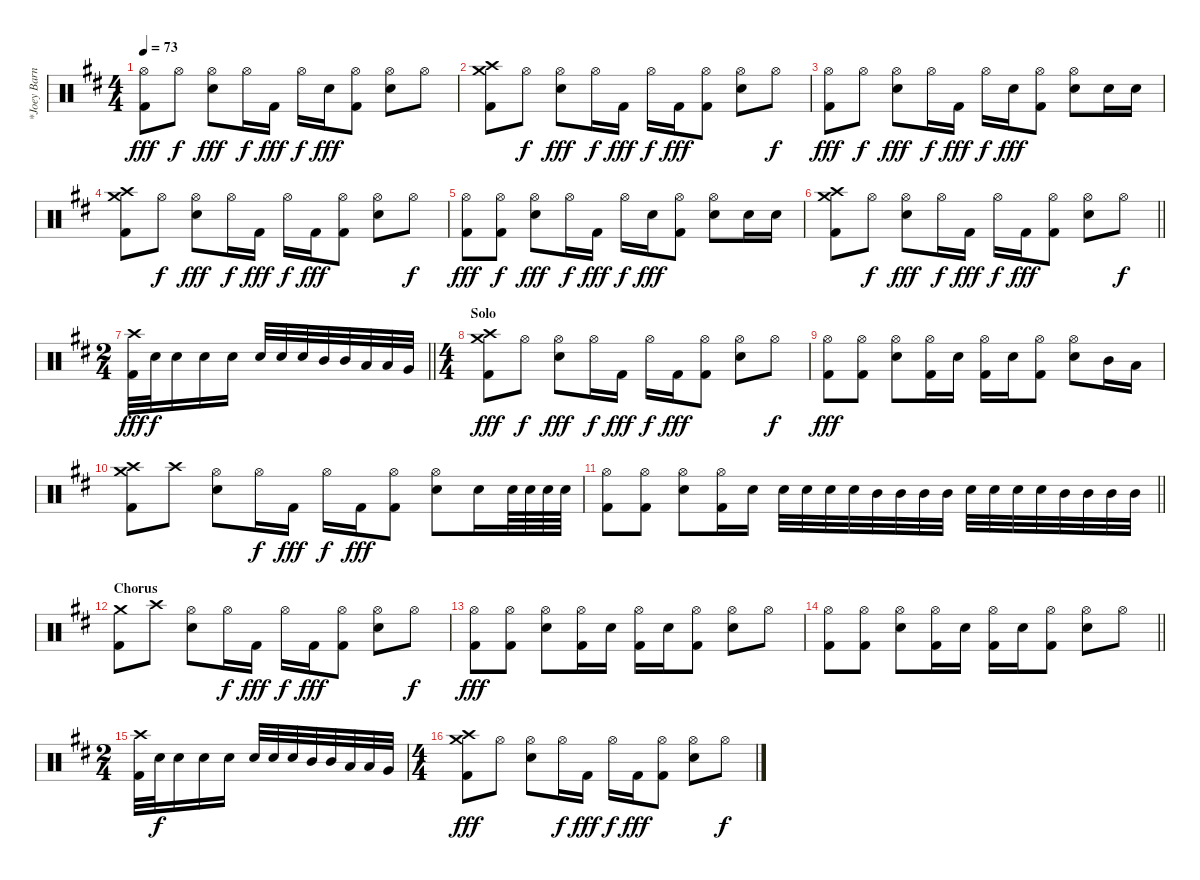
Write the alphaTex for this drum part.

\track ("*Joey Barnes (Drums)" "*Joey Barn") {instrument percussion}
\staff {score}
\articulation defaults
\ts (4 4)
\tempo 73
\clef neutral
\ks d
("Hi-Hat (open)" "Kick (hit) 2").8{dy fff} "Hi-Hat (open)".8{dy f} ("Hi-Hat (open)" "Snare (hit) 2").8{dy fff} "Hi-Hat (open)".16{dy f} "Kick (hit) 2".16{dy fff} "Hi-Hat (open)".16{dy f} "Snare (hit) 2".16{dy fff} ("Hi-Hat (open)" "Kick (hit) 2").8 ("Hi-Hat (open)" "Snare (hit) 2").8 "Hi-Hat (open)".8 |
("Crash high (hit)" "Crash medium (hit)" "Kick (hit) 2").8 "Hi-Hat (open)".8{dy f} ("Hi-Hat (open)" "Snare (hit) 2").8{dy fff} "Hi-Hat (open)".16{dy f} "Kick (hit) 2".16{dy fff} "Hi-Hat (open)".16{dy f} "Kick (hit) 2".16{dy fff} ("Hi-Hat (open)" "Kick (hit) 2").8 ("Hi-Hat (open)" "Snare (hit) 2").8 "Hi-Hat (open)".8{dy f} |
("Hi-Hat (open)" "Kick (hit) 2").8{dy fff} "Hi-Hat (open)".8{dy f} ("Hi-Hat (open)" "Snare (hit) 2").8{dy fff} "Hi-Hat (open)".16{dy f} "Kick (hit) 2".16{dy fff} "Hi-Hat (open)".16{dy f} "Snare (hit) 2".16{dy fff} ("Hi-Hat (open)" "Kick (hit) 2").8 ("Hi-Hat (open)" "Snare (hit) 2").8 "Snare (hit) 2".16 "Snare (hit) 2".16 |
("Crash high (hit)" "Crash medium (hit)" "Kick (hit) 2").8 "Hi-Hat (open)".8{dy f} ("Hi-Hat (open)" "Snare (hit) 2").8{dy fff} "Hi-Hat (open)".16{dy f} "Kick (hit) 2".16{dy fff} "Hi-Hat (open)".16{dy f} "Kick (hit) 2".16{dy fff} ("Hi-Hat (open)" "Kick (hit) 2").8 ("Hi-Hat (open)" "Snare (hit) 2").8 "Hi-Hat (open)".8{dy f} |
("Hi-Hat (open)" "Kick (hit) 2").8{dy fff} ("Hi-Hat (open)" "Kick (hit) 2").8{dy f} ("Hi-Hat (open)" "Snare (hit) 2").8{dy fff} "Hi-Hat (open)".16{dy f} "Kick (hit) 2".16{dy fff} "Hi-Hat (open)".16{dy f} "Snare (hit) 2".16{dy fff} ("Hi-Hat (open)" "Kick (hit) 2").8 ("Hi-Hat (open)" "Snare (hit) 2").8 "Snare (hit) 2".16 "Snare (hit) 2".16 |
\barLineRight lightlight
("Crash high (hit)" "Crash medium (hit)" "Kick (hit) 2").8 "Hi-Hat (open)".8{dy f} ("Hi-Hat (open)" "Snare (hit) 2").8{dy fff} "Hi-Hat (open)".16{dy f} "Kick (hit) 2".16{dy fff} "Hi-Hat (open)".16{dy f} "Kick (hit) 2".16{dy fff} ("Hi-Hat (open)" "Kick (hit) 2").8 ("Hi-Hat (open)" "Snare (hit) 2").8 "Hi-Hat (open)".8{dy f} |
\ts (2 4)
\barLineRight lightlight
("Crash high (hit)" "Kick (hit) 2").32{dy fff} "Snare (hit) 2".32{dy f} "Snare (hit) 2".16 "Snare (hit) 2".16 "Snare (hit) 2".16 "Snare (hit) 2".32 "Snare (hit) 2".32 "Snare (hit) 2".32 "Mid Tom (hit)".32 "Mid Tom (hit)".32 "Low Tom (hit)".32 "Low Tom (hit)".32 "Very Low Tom (hit)".32 |
\ts (4 4)
\section ("" "Solo")
("Crash high (hit)" "Crash medium (hit)" "Kick (hit) 2").8{dy fff} "Hi-Hat (open)".8{dy f} ("Hi-Hat (open)" "Snare (hit) 2").8{dy fff} "Hi-Hat (open)".16{dy f} "Kick (hit) 2".16{dy fff} "Hi-Hat (open)".16{dy f} "Kick (hit) 2".16{dy fff} ("Hi-Hat (open)" "Kick (hit) 2").8 ("Hi-Hat (open)" "Snare (hit) 2").8 "Hi-Hat (open)".8{dy f} |
("Hi-Hat (open)" "Kick (hit) 2").8{dy fff} ("Hi-Hat (open)" "Kick (hit) 2").8 ("Hi-Hat (open)" "Snare (hit) 2").8 ("Hi-Hat (open)" "Kick (hit) 2").16 "Snare (hit) 2".16 ("Hi-Hat (open)" "Kick (hit) 2").16 "Snare (hit) 2".16 ("Hi-Hat (open)" "Kick (hit) 2").8 ("Hi-Hat (open)" "Snare (hit) 2").8 "Mid Tom (hit)".16 "Low Tom (hit)".16 |
("Crash high (hit)" "Crash medium (hit)" "Kick (hit) 2").8 "Crash high (hit)".8 ("Hi-Hat (open)" "Snare (hit) 2").8 "Hi-Hat (open)".16{dy f} "Kick (hit) 2".16{dy fff} "Hi-Hat (open)".16{dy f} "Kick (hit) 2".16{dy fff} ("Hi-Hat (open)" "Kick (hit) 2").8 ("Hi-Hat (open)" "Snare (hit) 2").8 "Snare (hit) 2".16 "Snare (hit) 2".64 "Snare (hit) 2".64 "Snare (hit) 2".64 "Snare (hit) 2".64 |
\barLineRight lightlight
("Hi-Hat (open)" "Kick (hit) 2").8 ("Hi-Hat (open)" "Kick (hit) 2").8 ("Hi-Hat (open)" "Snare (hit) 2").8 ("Hi-Hat (open)" "Kick (hit) 2").16 "Snare (hit) 2".16 "Snare (hit) 2".32 "Snare (hit) 2".32 "Snare (hit) 2".32 "Snare (hit) 2".32 "Mid Tom (hit)".32 "Mid Tom (hit)".32 "Mid Tom (hit)".32 "Mid Tom (hit)".32 "Snare (hit) 2".32 "Snare (hit) 2".32 "Snare (hit) 2".32 "Snare (hit) 2".32 "Mid Tom (hit)".32 "Mid Tom (hit)".32 "Mid Tom (hit)".32 "Mid Tom (hit)".32 |
\section ("" "Chorus")
("Crash medium (hit)" "Kick (hit) 2").8 "Crash high (hit)".8 ("Hi-Hat (open)" "Snare (hit) 2").8 "Hi-Hat (open)".16{dy f} "Kick (hit) 2".16{dy fff} "Hi-Hat (open)".16{dy f} "Kick (hit) 2".16{dy fff} ("Hi-Hat (open)" "Kick (hit) 2").8 ("Hi-Hat (open)" "Snare (hit) 2").8 "Hi-Hat (open)".8{dy f} |
("Hi-Hat (open)" "Kick (hit) 2").8{dy fff} ("Hi-Hat (open)" "Kick (hit) 2").8 ("Hi-Hat (open)" "Snare (hit) 2").8 ("Hi-Hat (open)" "Kick (hit) 2").16 "Snare (hit) 2".16 ("Hi-Hat (open)" "Kick (hit) 2").16 "Snare (hit) 2".16 ("Hi-Hat (open)" "Kick (hit) 2").8 ("Hi-Hat (open)" "Snare (hit) 2").8 "Hi-Hat (open)".8 |
\barLineRight lightlight
("Hi-Hat (open)" "Kick (hit) 2").8 ("Hi-Hat (open)" "Kick (hit) 2").8 ("Hi-Hat (open)" "Snare (hit) 2").8 ("Hi-Hat (open)" "Kick (hit) 2").16 "Snare (hit) 2".16 ("Hi-Hat (open)" "Kick (hit) 2").16 "Snare (hit) 2".16 ("Hi-Hat (open)" "Kick (hit) 2").8 ("Hi-Hat (open)" "Snare (hit) 2").8 "Hi-Hat (open)".8 |
\ts (2 4)
("Crash high (hit)" "Kick (hit) 2").32 "Snare (hit) 2".32{dy f} "Snare (hit) 2".16 "Snare (hit) 2".16 "Snare (hit) 2".16 "Snare (hit) 2".32 "Snare (hit) 2".32 "Snare (hit) 2".32 "Mid Tom (hit)".32 "Mid Tom (hit)".32 "Low Tom (hit)".32 "Low Tom (hit)".32 "Very Low Tom (hit)".32 |
\ts (4 4)
("Crash high (hit)" "Crash medium (hit)" "Kick (hit) 2").8{dy fff} "Hi-Hat (open)".8 ("Hi-Hat (open)" "Snare (hit) 2").8 "Hi-Hat (open)".16{dy f} "Kick (hit) 2".16{dy fff} "Hi-Hat (open)".16{dy f} "Kick (hit) 2".16{dy fff} ("Hi-Hat (open)" "Kick (hit) 2").8 ("Hi-Hat (open)" "Snare (hit) 2").8 "Hi-Hat (open)".8{dy f}
